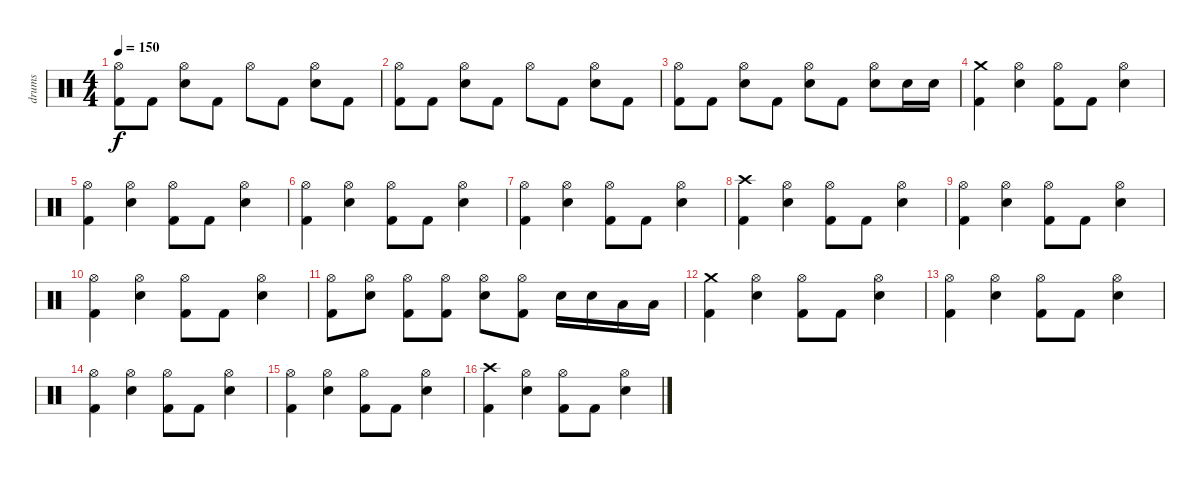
\track ("drums" "drums") {instrument percussion}
\staff {score}
\articulation defaults
\ts (4 4)
\tempo 150
\clef neutral
\ks c
("Hi-Hat (open)" "Kick (hit) 2").8{dy f} "Kick (hit) 2".8 ("Hi-Hat (open)" "Electric Snare (hit)").8 "Kick (hit) 2".8 "Hi-Hat (open)".8 "Kick (hit) 2".8 ("Hi-Hat (open)" "Electric Snare (hit)").8 "Kick (hit) 2".8 |
("Hi-Hat (open)" "Kick (hit) 2").8 "Kick (hit) 2".8 ("Hi-Hat (open)" "Electric Snare (hit)").8 "Kick (hit) 2".8 "Hi-Hat (open)".8 "Kick (hit) 2".8 ("Hi-Hat (open)" "Electric Snare (hit)").8 "Kick (hit) 2".8 |
("Hi-Hat (open)" "Kick (hit) 2").8 "Kick (hit) 2".8 ("Hi-Hat (open)" "Electric Snare (hit)").8 "Kick (hit) 2".8 ("Hi-Hat (open)" "Electric Snare (hit)").8 "Kick (hit) 2".8 ("Hi-Hat (open)" "Electric Snare (hit)").8 "Electric Snare (hit)".16 "Electric Snare (hit)".16 |
("Crash medium (hit)" "Kick (hit) 2").4 ("Hi-Hat (open)" "Electric Snare (hit)").4 ("Hi-Hat (open)" "Kick (hit) 2").8 "Kick (hit) 2".8 ("Hi-Hat (open)" "Electric Snare (hit)").4 |
("Hi-Hat (open)" "Kick (hit) 2").4 ("Hi-Hat (open)" "Electric Snare (hit)").4 ("Hi-Hat (open)" "Kick (hit) 2").8 "Kick (hit) 2".8 ("Hi-Hat (open)" "Electric Snare (hit)").4 |
("Hi-Hat (open)" "Kick (hit) 2").4 ("Hi-Hat (open)" "Electric Snare (hit)").4 ("Hi-Hat (open)" "Kick (hit) 2").8 "Kick (hit) 2".8 ("Hi-Hat (open)" "Electric Snare (hit)").4 |
("Hi-Hat (open)" "Kick (hit) 2").4 ("Hi-Hat (open)" "Electric Snare (hit)").4 ("Hi-Hat (open)" "Kick (hit) 2").8 "Kick (hit) 2".8 ("Hi-Hat (open)" "Electric Snare (hit)").4 |
("Crash high (hit)" "Kick (hit) 2").4 ("Hi-Hat (open)" "Electric Snare (hit)").4 ("Hi-Hat (open)" "Kick (hit) 2").8 "Kick (hit) 2".8 ("Hi-Hat (open)" "Electric Snare (hit)").4 |
("Hi-Hat (open)" "Kick (hit) 2").4 ("Hi-Hat (open)" "Electric Snare (hit)").4 ("Hi-Hat (open)" "Kick (hit) 2").8 "Kick (hit) 2".8 ("Hi-Hat (open)" "Electric Snare (hit)").4 |
("Hi-Hat (open)" "Kick (hit) 2").4 ("Hi-Hat (open)" "Electric Snare (hit)").4 ("Hi-Hat (open)" "Kick (hit) 2").8 "Kick (hit) 2".8 ("Hi-Hat (open)" "Electric Snare (hit)").4 |
("Hi-Hat (open)" "Kick (hit) 2").8 ("Hi-Hat (open)" "Electric Snare (hit)").8 ("Hi-Hat (open)" "Kick (hit) 2").8 ("Hi-Hat (open)" "Kick (hit) 2").8 ("Hi-Hat (open)" "Electric Snare (hit)").8 ("Hi-Hat (open)" "Kick (hit) 2").8 "Electric Snare (hit)".16 "Electric Snare (hit)".16 "Low Tom (hit)".16 "Low Tom (hit)".16 |
("Crash medium (hit)" "Kick (hit) 2").4 ("Hi-Hat (open)" "Electric Snare (hit)").4 ("Hi-Hat (open)" "Kick (hit) 2").8 "Kick (hit) 2".8 ("Hi-Hat (open)" "Electric Snare (hit)").4 |
("Hi-Hat (open)" "Kick (hit) 2").4 ("Hi-Hat (open)" "Electric Snare (hit)").4 ("Hi-Hat (open)" "Kick (hit) 2").8 "Kick (hit) 2".8 ("Hi-Hat (open)" "Electric Snare (hit)").4 |
("Hi-Hat (open)" "Kick (hit) 2").4 ("Hi-Hat (open)" "Electric Snare (hit)").4 ("Hi-Hat (open)" "Kick (hit) 2").8 "Kick (hit) 2".8 ("Hi-Hat (open)" "Electric Snare (hit)").4 |
("Hi-Hat (open)" "Kick (hit) 2").4 ("Hi-Hat (open)" "Electric Snare (hit)").4 ("Hi-Hat (open)" "Kick (hit) 2").8 "Kick (hit) 2".8 ("Hi-Hat (open)" "Electric Snare (hit)").4 |
("Crash high (hit)" "Kick (hit) 2").4 ("Hi-Hat (open)" "Electric Snare (hit)").4 ("Hi-Hat (open)" "Kick (hit) 2").8 "Kick (hit) 2".8 ("Hi-Hat (open)" "Electric Snare (hit)").4
